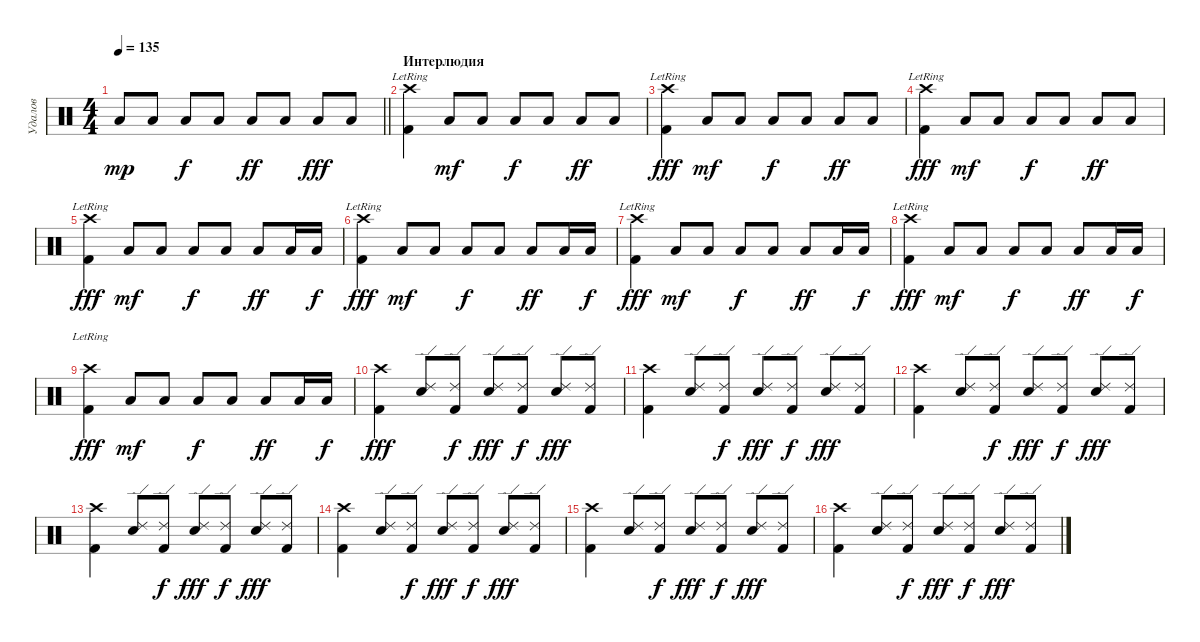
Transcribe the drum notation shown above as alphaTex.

\track ("Удалов" "Удалов") {instrument percussion}
\staff {score}
\articulation defaults
\ts (4 4)
\tempo 135
\clef neutral
\barLineRight lightlight
\ks c "Low Tom (hit)".8{dy mp} "Low Tom (hit)".8 "Low Tom (hit)".8{dy f} "Low Tom (hit)".8 "Low Tom (hit)".8{dy ff} "Low Tom (hit)".8 "Low Tom (hit)".8{dy fff} "Low Tom (hit)".8
|
\section ("" "Интерлюдия")
("Crash high (hit)"{lr} "Kick (hit) 2").4 "Low Tom (hit)".8{dy mf} "Low Tom (hit)".8 "Low Tom (hit)".8{dy f} "Low Tom (hit)".8 "Low Tom (hit)".8{dy ff} "Low Tom (hit)".8 |
("Crash high (hit)"{lr} "Kick (hit) 2").4{dy fff} "Low Tom (hit)".8{dy mf} "Low Tom (hit)".8 "Low Tom (hit)".8{dy f} "Low Tom (hit)".8 "Low Tom (hit)".8{dy ff} "Low Tom (hit)".8 |
("Crash high (hit)"{lr} "Kick (hit) 2").4{dy fff} "Low Tom (hit)".8{dy mf} "Low Tom (hit)".8 "Low Tom (hit)".8{dy f} "Low Tom (hit)".8 "Low Tom (hit)".8{dy ff} "Low Tom (hit)".8 |
("Crash high (hit)"{lr} "Kick (hit) 2").4{dy fff} "Low Tom (hit)".8{dy mf} "Low Tom (hit)".8 "Low Tom (hit)".8{dy f} "Low Tom (hit)".8 "Low Tom (hit)".8{dy ff} "Low Tom (hit)".16 "Low Tom (hit)".16{dy f} |
("Crash high (hit)"{lr} "Kick (hit) 2").4{dy fff} "Low Tom (hit)".8{dy mf} "Low Tom (hit)".8 "Low Tom (hit)".8{dy f} "Low Tom (hit)".8 "Low Tom (hit)".8{dy ff} "Low Tom (hit)".16 "Low Tom (hit)".16{dy f} |
("Crash high (hit)"{lr} "Kick (hit) 2").4{dy fff} "Low Tom (hit)".8{dy mf} "Low Tom (hit)".8 "Low Tom (hit)".8{dy f} "Low Tom (hit)".8 "Low Tom (hit)".8{dy ff} "Low Tom (hit)".16 "Low Tom (hit)".16{dy f} |
("Crash high (hit)"{lr} "Kick (hit) 2").4{dy fff} "Low Tom (hit)".8{dy mf} "Low Tom (hit)".8 "Low Tom (hit)".8{dy f} "Low Tom (hit)".8 "Low Tom (hit)".8{dy ff} "Low Tom (hit)".16 "Low Tom (hit)".16{dy f} |
("Crash high (hit)"{lr} "Kick (hit) 2").4{dy fff} "Low Tom (hit)".8{dy mf} "Low Tom (hit)".8 "Low Tom (hit)".8{dy f} "Low Tom (hit)".8 "Low Tom (hit)".8{dy ff} "Low Tom (hit)".16 "Low Tom (hit)".16{dy f} |
("Crash high (hit)" "Kick (hit) 2").4{dy fff} ("Ride (edge) 2" "Snare (hit) 2").8 ("Ride (edge) 2" "Kick (hit) 2").8{dy f} ("Ride (edge) 2" "Snare (hit) 2").8{dy fff} ("Ride (edge) 2" "Kick (hit) 2").8{dy f} ("Ride (edge) 2" "Snare (hit) 2").8{dy fff} ("Ride (edge) 2" "Kick (hit) 2").8 |
("Crash high (hit)" "Kick (hit) 2").4 ("Ride (edge) 2" "Snare (hit) 2").8 ("Ride (edge) 2" "Kick (hit) 2").8{dy f} ("Ride (edge) 2" "Snare (hit) 2").8{dy fff} ("Ride (edge) 2" "Kick (hit) 2").8{dy f} ("Ride (edge) 2" "Snare (hit) 2").8{dy fff} ("Ride (edge) 2" "Kick (hit) 2").8 |
("Crash high (hit)" "Kick (hit) 2").4 ("Ride (edge) 2" "Snare (hit) 2").8 ("Ride (edge) 2" "Kick (hit) 2").8{dy f} ("Ride (edge) 2" "Snare (hit) 2").8{dy fff} ("Ride (edge) 2" "Kick (hit) 2").8{dy f} ("Ride (edge) 2" "Snare (hit) 2").8{dy fff} ("Ride (edge) 2" "Kick (hit) 2").8 |
("Crash high (hit)" "Kick (hit) 2").4 ("Ride (edge) 2" "Snare (hit) 2").8 ("Ride (edge) 2" "Kick (hit) 2").8{dy f} ("Ride (edge) 2" "Snare (hit) 2").8{dy fff} ("Ride (edge) 2" "Kick (hit) 2").8{dy f} ("Ride (edge) 2" "Snare (hit) 2").8{dy fff} ("Ride (edge) 2" "Kick (hit) 2").8 |
("Crash high (hit)" "Kick (hit) 2").4 ("Ride (edge) 2" "Snare (hit) 2").8 ("Ride (edge) 2" "Kick (hit) 2").8{dy f} ("Ride (edge) 2" "Snare (hit) 2").8{dy fff} ("Ride (edge) 2" "Kick (hit) 2").8{dy f} ("Ride (edge) 2" "Snare (hit) 2").8{dy fff} ("Ride (edge) 2" "Kick (hit) 2").8 |
("Crash high (hit)" "Kick (hit) 2").4 ("Ride (edge) 2" "Snare (hit) 2").8 ("Ride (edge) 2" "Kick (hit) 2").8{dy f} ("Ride (edge) 2" "Snare (hit) 2").8{dy fff} ("Ride (edge) 2" "Kick (hit) 2").8{dy f} ("Ride (edge) 2" "Snare (hit) 2").8{dy fff} ("Ride (edge) 2" "Kick (hit) 2").8 |
("Crash high (hit)" "Kick (hit) 2").4 ("Ride (edge) 2" "Snare (hit) 2").8 ("Ride (edge) 2" "Kick (hit) 2").8{dy f} ("Ride (edge) 2" "Snare (hit) 2").8{dy fff} ("Ride (edge) 2" "Kick (hit) 2").8{dy f} ("Ride (edge) 2" "Snare (hit) 2").8{dy fff} ("Ride (edge) 2" "Kick (hit) 2").8
